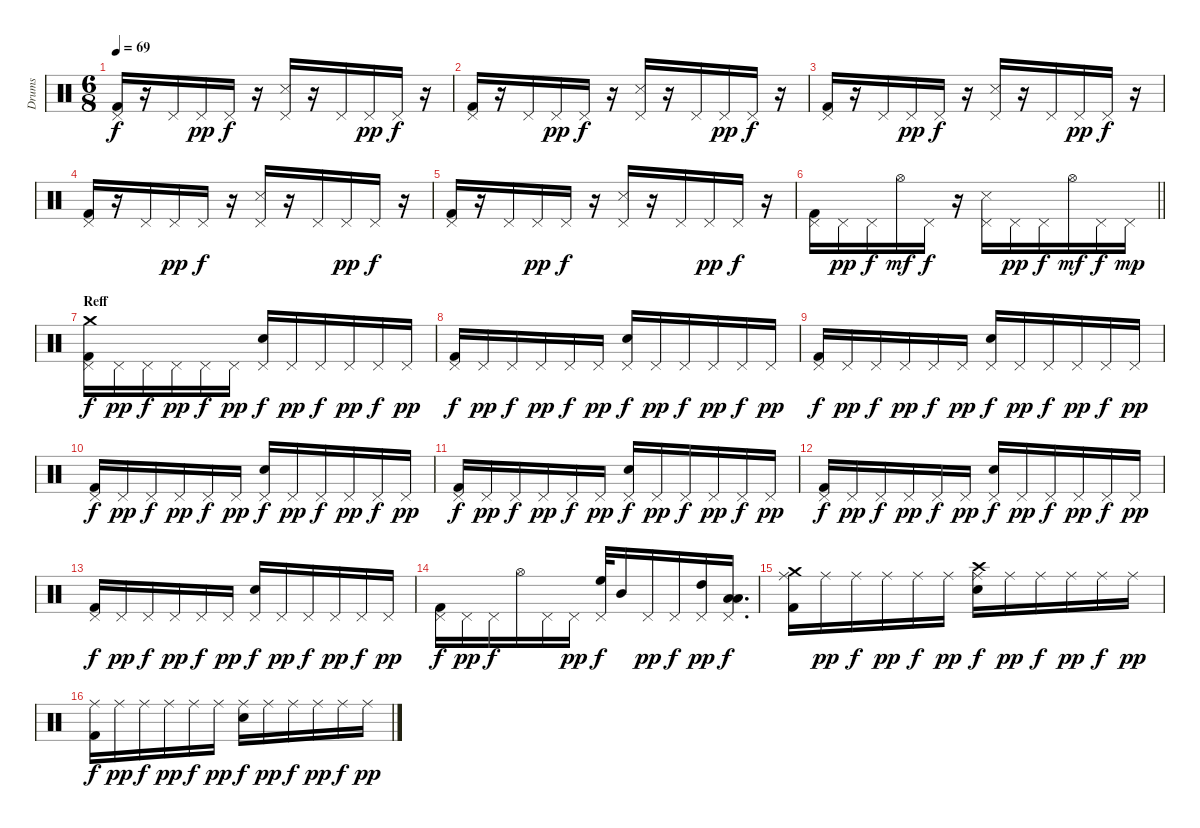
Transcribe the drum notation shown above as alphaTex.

\track ("Drums" "Drums") {instrument percussion}
\staff {score}
\articulation defaults
\ts (6 8)
\tempo 69
\clef neutral
\ks c
("Pedal Hi-Hat (hit)" "Kick (hit) 2").16{dy f} r.16 "Pedal Hi-Hat (hit)".16 "Pedal Hi-Hat (hit)".16{dy pp} "Pedal Hi-Hat (hit)".16{dy f} r.16 ("Pedal Hi-Hat (hit)" "Snare (side stick) 3").16 r.16 "Pedal Hi-Hat (hit)".16 "Pedal Hi-Hat (hit)".16{dy pp} "Pedal Hi-Hat (hit)".16{dy f} r.16 |
("Kick (hit) 2" "Pedal Hi-Hat (hit)").16 r.16 "Pedal Hi-Hat (hit)".16 "Pedal Hi-Hat (hit)".16{dy pp} "Pedal Hi-Hat (hit)".16{dy f} r.16 ("Pedal Hi-Hat (hit)" "Snare (side stick) 3").16 r.16 "Pedal Hi-Hat (hit)".16 "Pedal Hi-Hat (hit)".16{dy pp} "Pedal Hi-Hat (hit)".16{dy f} r.16 |
("Kick (hit) 2" "Pedal Hi-Hat (hit)").16 r.16 "Pedal Hi-Hat (hit)".16 "Pedal Hi-Hat (hit)".16{dy pp} "Pedal Hi-Hat (hit)".16{dy f} r.16 ("Pedal Hi-Hat (hit)" "Snare (side stick) 3").16 r.16 "Pedal Hi-Hat (hit)".16 "Pedal Hi-Hat (hit)".16{dy pp} "Pedal Hi-Hat (hit)".16{dy f} r.16 |
("Pedal Hi-Hat (hit)" "Kick (hit) 2").16 r.16 "Pedal Hi-Hat (hit)".16 "Pedal Hi-Hat (hit)".16{dy pp} "Pedal Hi-Hat (hit)".16{dy f} r.16 ("Pedal Hi-Hat (hit)" "Snare (side stick) 3").16 r.16 "Pedal Hi-Hat (hit)".16 "Pedal Hi-Hat (hit)".16{dy pp} "Pedal Hi-Hat (hit)".16{dy f} r.16 |
("Kick (hit) 2" "Pedal Hi-Hat (hit)").16 r.16 "Pedal Hi-Hat (hit)".16 "Pedal Hi-Hat (hit)".16{dy pp} "Pedal Hi-Hat (hit)".16{dy f} r.16 ("Pedal Hi-Hat (hit)" "Snare (side stick) 3").16 r.16 "Pedal Hi-Hat (hit)".16 "Pedal Hi-Hat (hit)".16{dy pp} "Pedal Hi-Hat (hit)".16{dy f} r.16 |
\barLineRight lightlight
("Kick (hit) 2" "Pedal Hi-Hat (hit)").16 "Pedal Hi-Hat (hit)".16{dy pp} "Pedal Hi-Hat (hit)".16{dy f} "Hi-Hat (open)".16{dy mf} "Pedal Hi-Hat (hit)".16{dy f} r.16 ("Pedal Hi-Hat (hit)" "Snare (side stick) 3").16 "Pedal Hi-Hat (hit)".16{dy pp} "Pedal Hi-Hat (hit)".16{dy f} "Hi-Hat (open)".16{dy mf} "Pedal Hi-Hat (hit)".16{dy f} "Pedal Hi-Hat (hit)".16{dy mp} |
\section ("" "Reff")
("Pedal Hi-Hat (hit)" "Kick (hit) 2" "Crash medium (hit)").16{dy f} "Pedal Hi-Hat (hit)".16{dy pp} "Pedal Hi-Hat (hit)".16{dy f} "Pedal Hi-Hat (hit)".16{dy pp} "Pedal Hi-Hat (hit)".16{dy f} "Pedal Hi-Hat (hit)".16{dy pp} ("Snare (hit) 2" "Pedal Hi-Hat (hit)").16{dy f} "Pedal Hi-Hat (hit)".16{dy pp} "Pedal Hi-Hat (hit)".16{dy f} "Pedal Hi-Hat (hit)".16{dy pp} "Pedal Hi-Hat (hit)".16{dy f} "Pedal Hi-Hat (hit)".16{dy pp} |
("Kick (hit) 2" "Pedal Hi-Hat (hit)").16{dy f} "Pedal Hi-Hat (hit)".16{dy pp} "Pedal Hi-Hat (hit)".16{dy f} "Pedal Hi-Hat (hit)".16{dy pp} "Pedal Hi-Hat (hit)".16{dy f} "Pedal Hi-Hat (hit)".16{dy pp} ("Snare (hit) 2" "Pedal Hi-Hat (hit)").16{dy f} "Pedal Hi-Hat (hit)".16{dy pp} "Pedal Hi-Hat (hit)".16{dy f} "Pedal Hi-Hat (hit)".16{dy pp} "Pedal Hi-Hat (hit)".16{dy f} "Pedal Hi-Hat (hit)".16{dy pp} |
("Pedal Hi-Hat (hit)" "Kick (hit) 2").16{dy f} "Pedal Hi-Hat (hit)".16{dy pp} "Pedal Hi-Hat (hit)".16{dy f} "Pedal Hi-Hat (hit)".16{dy pp} "Pedal Hi-Hat (hit)".16{dy f} "Pedal Hi-Hat (hit)".16{dy pp} ("Pedal Hi-Hat (hit)" "Snare (hit) 2").16{dy f} "Pedal Hi-Hat (hit)".16{dy pp} "Pedal Hi-Hat (hit)".16{dy f} "Pedal Hi-Hat (hit)".16{dy pp} "Pedal Hi-Hat (hit)".16{dy f} "Pedal Hi-Hat (hit)".16{dy pp} |
("Kick (hit) 2" "Pedal Hi-Hat (hit)").16{dy f} "Pedal Hi-Hat (hit)".16{dy pp} "Pedal Hi-Hat (hit)".16{dy f} "Pedal Hi-Hat (hit)".16{dy pp} "Pedal Hi-Hat (hit)".16{dy f} "Pedal Hi-Hat (hit)".16{dy pp} ("Snare (hit) 2" "Pedal Hi-Hat (hit)").16{dy f} "Pedal Hi-Hat (hit)".16{dy pp} "Pedal Hi-Hat (hit)".16{dy f} "Pedal Hi-Hat (hit)".16{dy pp} "Pedal Hi-Hat (hit)".16{dy f} "Pedal Hi-Hat (hit)".16{dy pp} |
("Pedal Hi-Hat (hit)" "Kick (hit) 2").16{dy f} "Pedal Hi-Hat (hit)".16{dy pp} "Pedal Hi-Hat (hit)".16{dy f} "Pedal Hi-Hat (hit)".16{dy pp} "Pedal Hi-Hat (hit)".16{dy f} "Pedal Hi-Hat (hit)".16{dy pp} ("Snare (hit) 2" "Pedal Hi-Hat (hit)").16{dy f} "Pedal Hi-Hat (hit)".16{dy pp} "Pedal Hi-Hat (hit)".16{dy f} "Pedal Hi-Hat (hit)".16{dy pp} "Pedal Hi-Hat (hit)".16{dy f} "Pedal Hi-Hat (hit)".16{dy pp} |
("Kick (hit) 2" "Pedal Hi-Hat (hit)").16{dy f} "Pedal Hi-Hat (hit)".16{dy pp} "Pedal Hi-Hat (hit)".16{dy f} "Pedal Hi-Hat (hit)".16{dy pp} "Pedal Hi-Hat (hit)".16{dy f} "Pedal Hi-Hat (hit)".16{dy pp} ("Snare (hit) 2" "Pedal Hi-Hat (hit)").16{dy f} "Pedal Hi-Hat (hit)".16{dy pp} "Pedal Hi-Hat (hit)".16{dy f} "Pedal Hi-Hat (hit)".16{dy pp} "Pedal Hi-Hat (hit)".16{dy f} "Pedal Hi-Hat (hit)".16{dy pp} |
("Pedal Hi-Hat (hit)" "Kick (hit) 2").16{dy f} "Pedal Hi-Hat (hit)".16{dy pp} "Pedal Hi-Hat (hit)".16{dy f} "Pedal Hi-Hat (hit)".16{dy pp} "Pedal Hi-Hat (hit)".16{dy f} "Pedal Hi-Hat (hit)".16{dy pp} ("Pedal Hi-Hat (hit)" "Snare (hit) 2").16{dy f} "Pedal Hi-Hat (hit)".16{dy pp} "Pedal Hi-Hat (hit)".16{dy f} "Pedal Hi-Hat (hit)".16{dy pp} "Pedal Hi-Hat (hit)".16{dy f} "Pedal Hi-Hat (hit)".16{dy pp} |
("Kick (hit) 2" "Pedal Hi-Hat (hit)").16{dy f} "Pedal Hi-Hat (hit)".16{dy pp} "Pedal Hi-Hat (hit)".16{dy f} "Hi-Hat (open)".16 "Pedal Hi-Hat (hit)".16 "Pedal Hi-Hat (hit)".16{dy pp} ("High Floor Tom (hit)" "Pedal Hi-Hat (hit)").32{dy f} "Mid Tom (hit)".16 "Pedal Hi-Hat (hit)".16{dy pp} "Pedal Hi-Hat (hit)".16{dy f} ("High Tom (hit)" "Pedal Hi-Hat (hit)").16{dy pp} ("Low Tom (hit)" "Pedal Hi-Hat (hit)" "Low Floor Tom (hit)").16{d dy f} |
("Kick (hit) 2" "Crash medium (hit)" "Ride (middle)").16 "Ride (middle)".16{dy pp} "Ride (middle)".16{dy f} "Ride (middle)".16{dy pp} "Ride (middle)".16{dy f} "Ride (middle)".16{dy pp} ("Snare (hit) 2" "Crash high (hit)" "Ride (middle)").16{dy f} "Ride (middle)".16{dy pp} "Ride (middle)".16{dy f} "Ride (middle)".16{dy pp} "Ride (middle)".16{dy f} "Ride (middle)".16{dy pp} |
("Kick (hit) 2" "Ride (middle)").16{dy f} "Ride (middle)".16{dy pp} "Ride (middle)".16{dy f} "Ride (middle)".16{dy pp} "Ride (middle)".16{dy f} "Ride (middle)".16{dy pp} ("Snare (hit) 2" "Ride (middle)").16{dy f} "Ride (middle)".16{dy pp} "Ride (middle)".16{dy f} "Ride (middle)".16{dy pp} "Ride (middle)".16{dy f} "Ride (middle)".16{dy pp}
